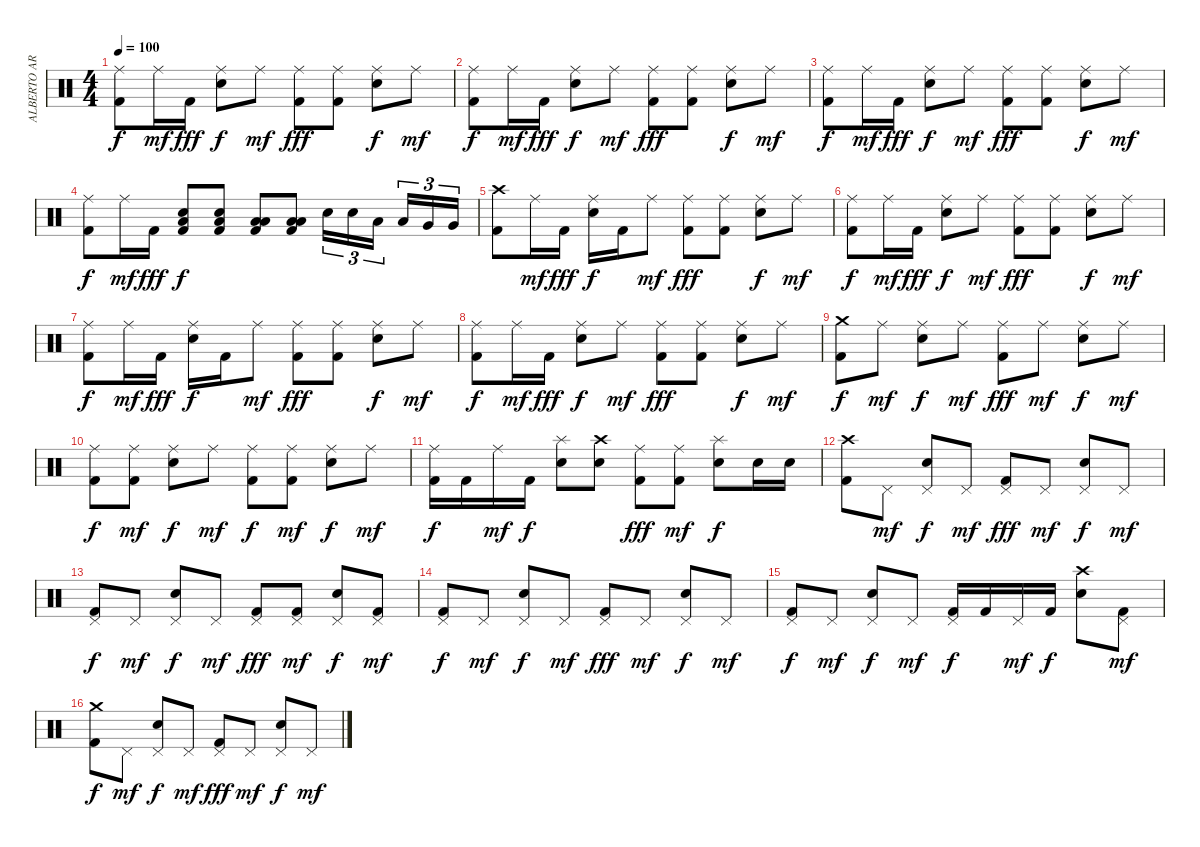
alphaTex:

\track ("ALBERTO ARDINES" "ALBERTO AR") {instrument percussion}
\staff {score}
\articulation defaults
\ts (4 4)
\tempo 100
\clef neutral
\ks c
("Ride (middle)" "Kick (hit) 2").8{dy f} "Ride (middle)".16{dy mf} "Kick (hit) 2".16{dy fff} ("Ride (middle)" "Electric Snare (hit)").8{dy f} "Ride (middle)".8{dy mf} ("Ride (middle)" "Kick (hit) 2").8{dy fff} ("Ride (middle)" "Kick (hit) 2").8 ("Ride (middle)" "Electric Snare (hit)").8{dy f} "Ride (middle)".8{dy mf} |
("Ride (middle)" "Kick (hit) 2").8{dy f} "Ride (middle)".16{dy mf} "Kick (hit) 2".16{dy fff} ("Ride (middle)" "Electric Snare (hit)").8{dy f} "Ride (middle)".8{dy mf} ("Ride (middle)" "Kick (hit) 2").8{dy fff} ("Ride (middle)" "Kick (hit) 2").8 ("Ride (middle)" "Electric Snare (hit)").8{dy f} "Ride (middle)".8{dy mf} |
("Ride (middle)" "Kick (hit) 2").8{dy f} "Ride (middle)".16{dy mf} "Kick (hit) 2".16{dy fff} ("Ride (middle)" "Electric Snare (hit)").8{dy f} "Ride (middle)".8{dy mf} ("Ride (middle)" "Kick (hit) 2").8{dy fff} ("Ride (middle)" "Kick (hit) 2").8 ("Ride (middle)" "Electric Snare (hit)").8{dy f} "Ride (middle)".8{dy mf} |
("Ride (middle)" "Kick (hit) 2").8{dy f} "Ride (middle)".16{dy mf} "Kick (hit) 2".16{dy fff} ("Low Floor Tom (hit)" "Electric Snare (hit)" "Kick (hit) 2").8{dy f} ("Low Floor Tom (hit)" "Electric Snare (hit)" "Kick (hit) 2").8 ("Low Floor Tom (hit)" "Low Tom (hit)" "Kick (hit) 2").8 ("Low Floor Tom (hit)" "Low Tom (hit)" "Kick (hit) 2").8 "Electric Snare (hit)".16{tu (3 2)} "Electric Snare (hit)".16{tu (3 2)} "Low Tom (hit)".16{tu (3 2)} "Low Tom (hit)".16{tu (3 2)} "Very Low Tom (hit)".16{tu (3 2)} "Very Low Tom (hit)".16{tu (3 2)} |
("Crash high (hit)" "Kick (hit) 2").8 "Ride (middle)".16{dy mf} "Kick (hit) 2".16{dy fff} ("Ride (middle)" "Electric Snare (hit)").16{dy f} "Kick (hit) 2".16 "Ride (middle)".8{dy mf} ("Ride (middle)" "Kick (hit) 2").8{dy fff} ("Ride (middle)" "Kick (hit) 2").8 ("Ride (middle)" "Electric Snare (hit)").8{dy f} "Ride (middle)".8{dy mf} |
("Ride (middle)" "Kick (hit) 2").8{dy f} "Ride (middle)".16{dy mf} "Kick (hit) 2".16{dy fff} ("Ride (middle)" "Electric Snare (hit)").8{dy f} "Ride (middle)".8{dy mf} ("Ride (middle)" "Kick (hit) 2").8{dy fff} ("Ride (middle)" "Kick (hit) 2").8 ("Ride (middle)" "Electric Snare (hit)").8{dy f} "Ride (middle)".8{dy mf} |
("Ride (middle)" "Kick (hit) 2").8{dy f} "Ride (middle)".16{dy mf} "Kick (hit) 2".16{dy fff} ("Ride (middle)" "Electric Snare (hit)").16{dy f} "Kick (hit) 2".16 "Ride (middle)".8{dy mf} ("Ride (middle)" "Kick (hit) 2").8{dy fff} ("Ride (middle)" "Kick (hit) 2").8 ("Ride (middle)" "Electric Snare (hit)").8{dy f} "Ride (middle)".8{dy mf} |
("Ride (middle)" "Kick (hit) 2").8{dy f} "Ride (middle)".16{dy mf} "Kick (hit) 2".16{dy fff} ("Ride (middle)" "Electric Snare (hit)").8{dy f} "Ride (middle)".8{dy mf} ("Ride (middle)" "Kick (hit) 2").8{dy fff} ("Ride (middle)" "Kick (hit) 2").8 ("Ride (middle)" "Electric Snare (hit)").8{dy f} "Ride (middle)".8{dy mf} |
("Crash medium (hit)" "Kick (hit) 2").8{dy f} "Ride (middle)".8{dy mf} ("Ride (middle)" "Electric Snare (hit)").8{dy f} "Ride (middle)".8{dy mf} ("Ride (middle)" "Kick (hit) 2").8{dy fff} "Ride (middle)".8{dy mf} ("Ride (middle)" "Electric Snare (hit)").8{dy f} "Ride (middle)".8{dy mf} |
("Ride (middle)" "Kick (hit) 2").8{dy f} ("Ride (middle)" "Kick (hit) 2").8{dy mf} ("Ride (middle)" "Electric Snare (hit)").8{dy f} "Ride (middle)".8{dy mf} ("Ride (middle)" "Kick (hit) 2").8{dy f} ("Ride (middle)" "Kick (hit) 2").8{dy mf} ("Ride (middle)" "Electric Snare (hit)").8{dy f} "Ride (middle)".8{dy mf} |
("Ride (middle)" "Kick (hit) 2").16{dy f} "Kick (hit) 2".16 "Ride (middle)".16{dy mf} "Kick (hit) 2".16{dy f} ("Splash (hit)" "Electric Snare (hit)").8 ("Crash high (hit)" "Electric Snare (hit)").8 ("Ride (middle)" "Kick (hit) 2").8{dy fff} ("Ride (middle)" "Kick (hit) 2").8{dy mf} ("Splash (hit)" "Electric Snare (hit)").8{dy f} "Electric Snare (hit)".16 "Electric Snare (hit)".16 |
("Crash high (hit)" "Kick (hit) 2").8 "Pedal Hi-Hat (hit)".8{dy mf} ("Pedal Hi-Hat (hit)" "Electric Snare (hit)").8{dy f} "Pedal Hi-Hat (hit)".8{dy mf} ("Pedal Hi-Hat (hit)" "Kick (hit) 2").8{dy fff} "Pedal Hi-Hat (hit)".8{dy mf} ("Pedal Hi-Hat (hit)" "Electric Snare (hit)").8{dy f} "Pedal Hi-Hat (hit)".8{dy mf} |
("Pedal Hi-Hat (hit)" "Kick (hit) 2").8{dy f} "Pedal Hi-Hat (hit)".8{dy mf} ("Pedal Hi-Hat (hit)" "Electric Snare (hit)").8{dy f} "Pedal Hi-Hat (hit)".8{dy mf} ("Pedal Hi-Hat (hit)" "Kick (hit) 2").8{dy fff} ("Pedal Hi-Hat (hit)" "Kick (hit) 2").8{dy mf} ("Pedal Hi-Hat (hit)" "Electric Snare (hit)").8{dy f} ("Pedal Hi-Hat (hit)" "Kick (hit) 2").8{dy mf} |
("Pedal Hi-Hat (hit)" "Kick (hit) 2").8{dy f} "Pedal Hi-Hat (hit)".8{dy mf} ("Pedal Hi-Hat (hit)" "Electric Snare (hit)").8{dy f} "Pedal Hi-Hat (hit)".8{dy mf} ("Pedal Hi-Hat (hit)" "Kick (hit) 2").8{dy fff} "Pedal Hi-Hat (hit)".8{dy mf} ("Pedal Hi-Hat (hit)" "Electric Snare (hit)").8{dy f} "Pedal Hi-Hat (hit)".8{dy mf} |
("Pedal Hi-Hat (hit)" "Kick (hit) 2").8{dy f} "Pedal Hi-Hat (hit)".8{dy mf} ("Pedal Hi-Hat (hit)" "Electric Snare (hit)").8{dy f} "Pedal Hi-Hat (hit)".8{dy mf} ("Pedal Hi-Hat (hit)" "Kick (hit) 2").16{dy f} "Kick (hit) 2".16 "Pedal Hi-Hat (hit)".16{dy mf} "Kick (hit) 2".16{dy f} ("Crash high (hit)" "Electric Snare (hit)").8 ("Pedal Hi-Hat (hit)" "Kick (hit) 2").8{dy mf} |
("Crash medium (hit)" "Kick (hit) 2").8{dy f} "Pedal Hi-Hat (hit)".8{dy mf} ("Pedal Hi-Hat (hit)" "Electric Snare (hit)").8{dy f} "Pedal Hi-Hat (hit)".8{dy mf} ("Pedal Hi-Hat (hit)" "Kick (hit) 2").8{dy fff} "Pedal Hi-Hat (hit)".8{dy mf} ("Pedal Hi-Hat (hit)" "Electric Snare (hit)").8{dy f} "Pedal Hi-Hat (hit)".8{dy mf}
